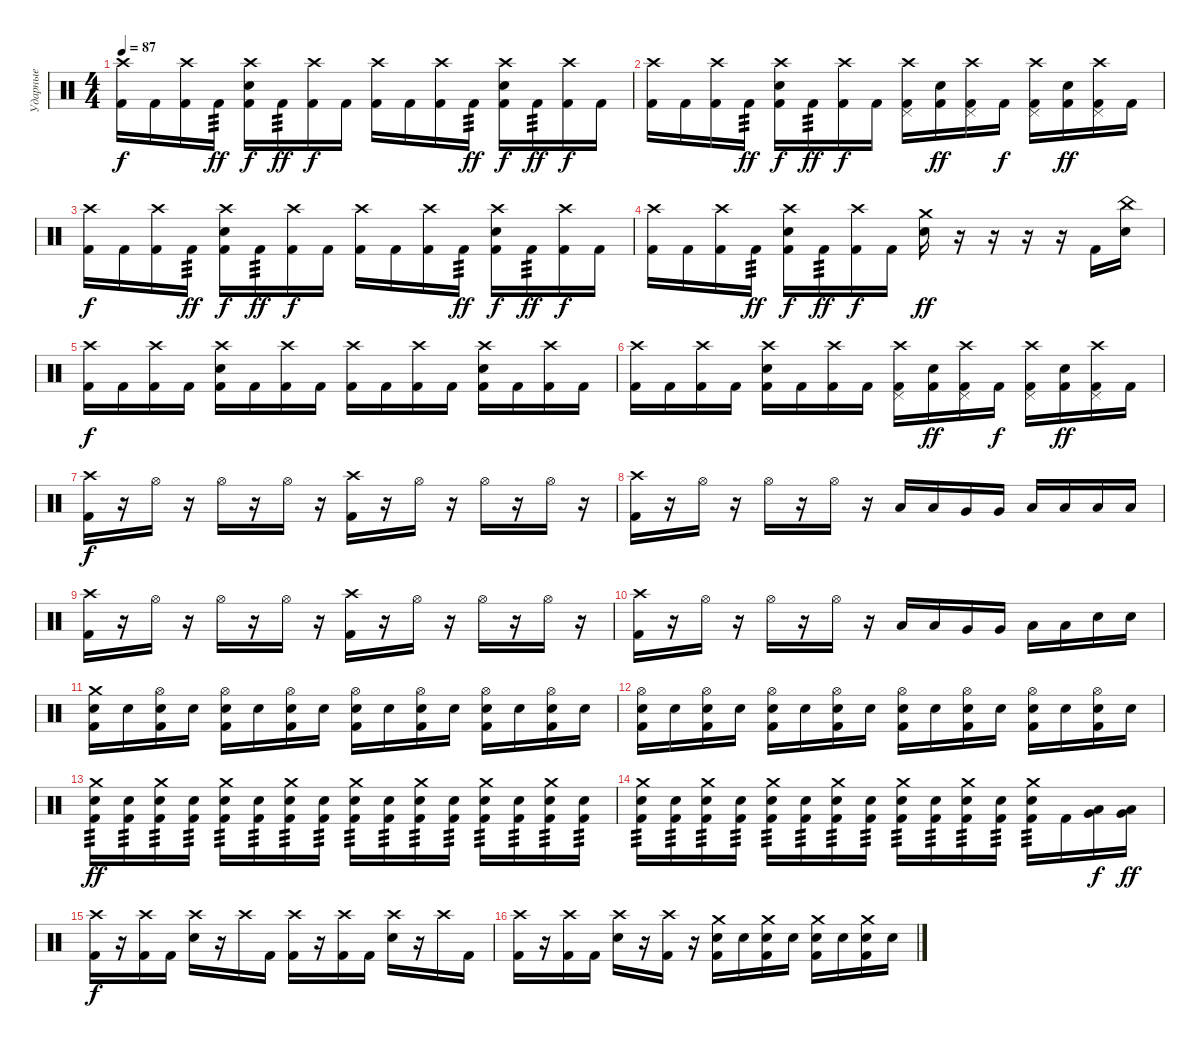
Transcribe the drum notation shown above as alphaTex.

\track ("Ударные" "Ударные") {instrument percussion}
\staff {score}
\articulation defaults
\ts (4 4)
\tempo 87
\clef neutral
\ks c
("Crash high (hit)" "Kick (hit) 2").16{dy f} "Kick (hit) 2".16 ("Crash high (hit)" "Kick (hit) 2").16 "Kick (hit) 2".16{tp 3 dy ff} ("Crash high (hit)" "Electric Snare (hit)" "Kick (hit) 2").16{dy f} "Kick (hit) 2".16{tp 3 dy ff} ("Crash high (hit)" "Kick (hit) 2").16{dy f} "Kick (hit) 2".16 ("Crash high (hit)" "Kick (hit) 2").16 "Kick (hit) 2".16 ("Crash high (hit)" "Kick (hit) 2").16 "Kick (hit) 2".16{tp 3 dy ff} ("Crash high (hit)" "Electric Snare (hit)" "Kick (hit) 2").16{dy f} "Kick (hit) 2".16{tp 3 dy ff} ("Crash high (hit)" "Kick (hit) 2").16{dy f} "Kick (hit) 2".16 |
("Crash high (hit)" "Kick (hit) 2").16 "Kick (hit) 2".16 ("Crash high (hit)" "Kick (hit) 2").16 "Kick (hit) 2".16{tp 3 dy ff} ("Crash high (hit)" "Electric Snare (hit)" "Kick (hit) 2").16{dy f} "Kick (hit) 2".16{tp 3 dy ff} ("Crash high (hit)" "Kick (hit) 2").16{dy f} "Kick (hit) 2".16 ("Crash high (hit)" "Pedal Hi-Hat (hit)" "Kick (hit) 2").16 ("Electric Snare (hit)" "Kick (hit) 2").16{dy ff} ("Crash high (hit)" "Pedal Hi-Hat (hit)" "Kick (hit) 2").16 "Kick (hit) 2".16{dy f} ("Crash high (hit)" "Pedal Hi-Hat (hit)" "Kick (hit) 2").16 ("Electric Snare (hit)" "Kick (hit) 2").16{dy ff} ("Crash high (hit)" "Pedal Hi-Hat (hit)" "Kick (hit) 2").16 "Kick (hit) 2".16 |
("Crash high (hit)" "Kick (hit) 2").16{dy f} "Kick (hit) 2".16 ("Crash high (hit)" "Kick (hit) 2").16 "Kick (hit) 2".16{tp 3 dy ff} ("Crash high (hit)" "Electric Snare (hit)" "Kick (hit) 2").16{dy f} "Kick (hit) 2".16{tp 3 dy ff} ("Crash high (hit)" "Kick (hit) 2").16{dy f} "Kick (hit) 2".16 ("Crash high (hit)" "Kick (hit) 2").16 "Kick (hit) 2".16 ("Crash high (hit)" "Kick (hit) 2").16 "Kick (hit) 2".16{tp 3 dy ff} ("Crash high (hit)" "Electric Snare (hit)" "Kick (hit) 2").16{dy f} "Kick (hit) 2".16{tp 3 dy ff} ("Crash high (hit)" "Kick (hit) 2").16{dy f} "Kick (hit) 2".16 |
("Crash high (hit)" "Kick (hit) 2").16 "Kick (hit) 2".16 ("Crash high (hit)" "Kick (hit) 2").16 "Kick (hit) 2".16{tp 3 dy ff} ("Crash high (hit)" "Electric Snare (hit)" "Kick (hit) 2").16{dy f} "Kick (hit) 2".16{tp 3 dy ff} ("Crash high (hit)" "Kick (hit) 2").16{dy f} "Kick (hit) 2".16 ("Crash medium (hit)" "Electric Snare (hit)").16{dy ff} r.16 r.16 r.16 r.16 "Kick (hit) 2".16 ("Electric Snare (hit)" "China (hit)").16 |
("Crash high (hit)" "Kick (hit) 2").16{dy f} "Kick (hit) 2".16 ("Crash high (hit)" "Kick (hit) 2").16 "Kick (hit) 2".16 ("Crash high (hit)" "Electric Snare (hit)" "Kick (hit) 2").16 "Kick (hit) 2".16 ("Crash high (hit)" "Kick (hit) 2").16 "Kick (hit) 2".16 ("Crash high (hit)" "Kick (hit) 2").16 "Kick (hit) 2".16 ("Crash high (hit)" "Kick (hit) 2").16 "Kick (hit) 2".16 ("Crash high (hit)" "Electric Snare (hit)" "Kick (hit) 2").16 "Kick (hit) 2".16 ("Crash high (hit)" "Kick (hit) 2").16 "Kick (hit) 2".16 |
("Crash high (hit)" "Kick (hit) 2").16 "Kick (hit) 2".16 ("Crash high (hit)" "Kick (hit) 2").16 "Kick (hit) 2".16 ("Crash high (hit)" "Electric Snare (hit)" "Kick (hit) 2").16 "Kick (hit) 2".16 ("Crash high (hit)" "Kick (hit) 2").16 "Kick (hit) 2".16 ("Crash high (hit)" "Pedal Hi-Hat (hit)" "Kick (hit) 2").16 ("Electric Snare (hit)" "Kick (hit) 2").16{dy ff} ("Crash high (hit)" "Pedal Hi-Hat (hit)" "Kick (hit) 2").16 "Kick (hit) 2".16{dy f} ("Crash high (hit)" "Pedal Hi-Hat (hit)" "Kick (hit) 2").16 ("Electric Snare (hit)" "Kick (hit) 2").16{dy ff} ("Crash high (hit)" "Pedal Hi-Hat (hit)" "Kick (hit) 2").16 "Kick (hit) 2".16 |
("Crash high (hit)" "Kick (hit) 2").16{dy f} r.16 "Hi-Hat (open)".16 r.16 "Hi-Hat (open)".16 r.16 "Hi-Hat (open)".16 r.16 ("Crash high (hit)" "Kick (hit) 2").16 r.16 "Hi-Hat (open)".16 r.16 "Hi-Hat (open)".16 r.16 "Hi-Hat (open)".16 r.16 |
("Crash high (hit)" "Kick (hit) 2").16 r.16 "Hi-Hat (open)".16 r.16 "Hi-Hat (open)".16 r.16 "Hi-Hat (open)".16 r.16 "Low Tom (hit)".16 "Low Tom (hit)".16 "Very Low Tom (hit)".16 "Very Low Tom (hit)".16 "Low Floor Tom (hit)".16 "Low Floor Tom (hit)".16 "Low Floor Tom (hit)".16 "Low Floor Tom (hit)".16 |
("Crash high (hit)" "Kick (hit) 2").16 r.16 "Hi-Hat (open)".16 r.16 "Hi-Hat (open)".16 r.16 "Hi-Hat (open)".16 r.16 ("Crash high (hit)" "Kick (hit) 2").16 r.16 "Hi-Hat (open)".16 r.16 "Hi-Hat (open)".16 r.16 "Hi-Hat (open)".16 r.16 |
("Crash high (hit)" "Kick (hit) 2").16 r.16 "Hi-Hat (open)".16 r.16 "Hi-Hat (open)".16 r.16 "Hi-Hat (open)".16 r.16 "Low Tom (hit)".16 "Low Tom (hit)".16 "Very Low Tom (hit)".16 "Very Low Tom (hit)".16 "Low Floor Tom (hit)".16 "Low Floor Tom (hit)".16 "Electric Snare (hit)".16 "Electric Snare (hit)".16 |
("Crash medium (hit)" "Electric Snare (hit)" "Kick (hit) 2").16 "Electric Snare (hit)".16 ("Hi-Hat (open)" "Electric Snare (hit)" "Kick (hit) 2").16 "Electric Snare (hit)".16 ("Hi-Hat (open)" "Electric Snare (hit)" "Kick (hit) 2").16 "Electric Snare (hit)".16 ("Hi-Hat (open)" "Electric Snare (hit)" "Kick (hit) 2").16 "Electric Snare (hit)".16 ("Hi-Hat (open)" "Electric Snare (hit)" "Kick (hit) 2").16 "Electric Snare (hit)".16 ("Hi-Hat (open)" "Electric Snare (hit)" "Kick (hit) 2").16 "Electric Snare (hit)".16 ("Hi-Hat (open)" "Electric Snare (hit)" "Kick (hit) 2").16 "Electric Snare (hit)".16 ("Hi-Hat (open)" "Electric Snare (hit)" "Kick (hit) 2").16 "Electric Snare (hit)".16 |
("Hi-Hat (open)" "Electric Snare (hit)" "Kick (hit) 2").16 "Electric Snare (hit)".16 ("Hi-Hat (open)" "Electric Snare (hit)" "Kick (hit) 2").16 "Electric Snare (hit)".16 ("Hi-Hat (open)" "Electric Snare (hit)" "Kick (hit) 2").16 "Electric Snare (hit)".16 ("Hi-Hat (open)" "Electric Snare (hit)" "Kick (hit) 2").16 "Electric Snare (hit)".16 ("Hi-Hat (open)" "Electric Snare (hit)" "Kick (hit) 2").16 "Electric Snare (hit)".16 ("Hi-Hat (open)" "Electric Snare (hit)" "Kick (hit) 2").16 "Electric Snare (hit)".16 ("Hi-Hat (open)" "Electric Snare (hit)" "Kick (hit) 2").16 "Electric Snare (hit)".16 ("Hi-Hat (open)" "Electric Snare (hit)" "Kick (hit) 2").16 "Electric Snare (hit)".16 |
("Crash medium (hit)" "Electric Snare (hit)" "Kick (hit) 2").16{tp 3 dy ff} ("Electric Snare (hit)" "Kick (hit) 2").16{tp 3} ("Crash medium (hit)" "Electric Snare (hit)" "Kick (hit) 2").16{tp 3} ("Electric Snare (hit)" "Kick (hit) 2").16{tp 3} ("Crash medium (hit)" "Electric Snare (hit)" "Kick (hit) 2").16{tp 3} ("Electric Snare (hit)" "Kick (hit) 2").16{tp 3} ("Crash medium (hit)" "Electric Snare (hit)" "Kick (hit) 2").16{tp 3} ("Electric Snare (hit)" "Kick (hit) 2").16{tp 3} ("Crash medium (hit)" "Electric Snare (hit)" "Kick (hit) 2").16{tp 3} ("Electric Snare (hit)" "Kick (hit) 2").16{tp 3} ("Crash medium (hit)" "Electric Snare (hit)" "Kick (hit) 2").16{tp 3} ("Electric Snare (hit)" "Kick (hit) 2").16{tp 3} ("Crash medium (hit)" "Electric Snare (hit)" "Kick (hit) 2").16{tp 3} ("Electric Snare (hit)" "Kick (hit) 2").16{tp 3} ("Crash medium (hit)" "Electric Snare (hit)" "Kick (hit) 2").16{tp 3} ("Electric Snare (hit)" "Kick (hit) 2").16{tp 3} |
("Crash medium (hit)" "Electric Snare (hit)" "Kick (hit) 2").16{tp 3} ("Electric Snare (hit)" "Kick (hit) 2").16{tp 3} ("Crash medium (hit)" "Electric Snare (hit)" "Kick (hit) 2").16{tp 3} ("Electric Snare (hit)" "Kick (hit) 2").16{tp 3} ("Crash medium (hit)" "Electric Snare (hit)" "Kick (hit) 2").16{tp 3} ("Electric Snare (hit)" "Kick (hit) 2").16{tp 3} ("Crash medium (hit)" "Electric Snare (hit)" "Kick (hit) 2").16{tp 3} ("Electric Snare (hit)" "Kick (hit) 2").16{tp 3} ("Crash medium (hit)" "Electric Snare (hit)" "Kick (hit) 2").16{tp 3} ("Electric Snare (hit)" "Kick (hit) 2").16{tp 3} ("Crash medium (hit)" "Electric Snare (hit)" "Kick (hit) 2").16{tp 3} ("Electric Snare (hit)" "Kick (hit) 2").16{tp 3} ("Crash medium (hit)" "Electric Snare (hit)" "Kick (hit) 2").16{tp 3} "Kick (hit) 2".16 ("Low Floor Tom (hit)" "Very Low Tom (hit)").16{dy f} ("Low Floor Tom (hit)" "Very Low Tom (hit)").16{dy ff} |
("Crash high (hit)" "Kick (hit) 2").16{dy f} r.16 ("Crash high (hit)" "Kick (hit) 2").16 "Kick (hit) 2".16 ("Crash high (hit)" "Electric Snare (hit)").16 r.16 "Crash high (hit)".16 "Kick (hit) 2".16 ("Crash high (hit)" "Kick (hit) 2").16 r.16 ("Crash high (hit)" "Kick (hit) 2").16 "Kick (hit) 2".16 ("Crash high (hit)" "Electric Snare (hit)").16 r.16 "Crash high (hit)".16 "Kick (hit) 2".16 |
("Crash high (hit)" "Kick (hit) 2").16 r.16 ("Crash high (hit)" "Kick (hit) 2").16 "Kick (hit) 2".16 ("Crash high (hit)" "Electric Snare (hit)").16 r.16 ("Crash high (hit)" "Kick (hit) 2").16 r.16 ("Crash medium (hit)" "Electric Snare (hit)" "Kick (hit) 2").16 "Electric Snare (hit)".16 ("Crash medium (hit)" "Electric Snare (hit)" "Kick (hit) 2").16 "Electric Snare (hit)".16 ("Crash medium (hit)" "Electric Snare (hit)" "Kick (hit) 2").16 "Electric Snare (hit)".16 ("Crash medium (hit)" "Electric Snare (hit)" "Kick (hit) 2").16 "Electric Snare (hit)".16
